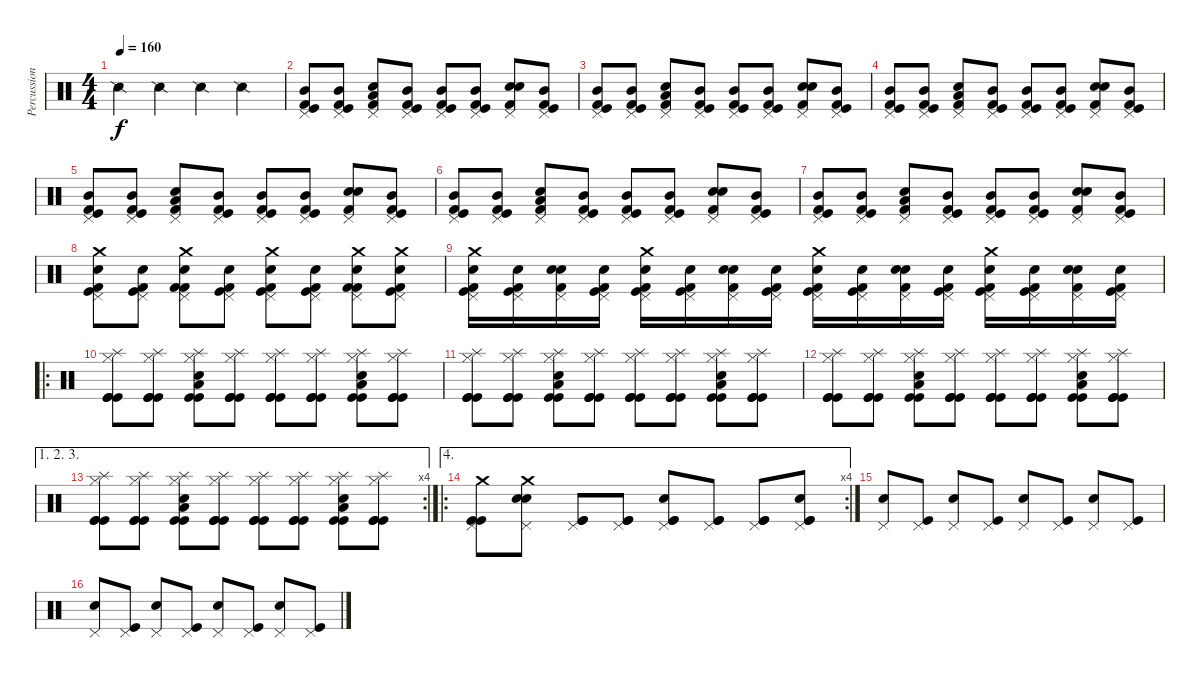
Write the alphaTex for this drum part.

\track ("Percussion" "Percussion") {instrument percussion}
\staff {score}
\articulation defaults
\ts (4 4)
\tempo 160
\clef neutral
\ks c "Snare (side stick) 2".4{dy f} "Snare (side stick) 2".4 "Snare (side stick) 2".4 "Snare (side stick) 2".4
|
("Pedal Hi-Hat (hit)" "Mid Tom (hit)" "Kick (hit) 2" "Kick (hit)").8 ("Pedal Hi-Hat (hit)" "Mid Tom (hit)" "Kick (hit) 2" "Kick (hit)").8 ("Pedal Hi-Hat (hit)" "Low Tom (hit)" "Electric Snare (hit)" "Kick (hit) 2").8 ("Pedal Hi-Hat (hit)" "Mid Tom (hit)" "Kick (hit) 2" "Kick (hit)").8 ("Pedal Hi-Hat (hit)" "Mid Tom (hit)" "Kick (hit) 2" "Kick (hit)").8 ("Pedal Hi-Hat (hit)" "Mid Tom (hit)" "Kick (hit) 2" "Kick (hit)").8 ("Pedal Hi-Hat (hit)" "Electric Snare (hit)" "Electric Snare (hit)" "Kick (hit) 2").8 ("Pedal Hi-Hat (hit)" "Mid Tom (hit)" "Kick (hit) 2" "Kick (hit)").8 |
("Pedal Hi-Hat (hit)" "Mid Tom (hit)" "Kick (hit) 2" "Kick (hit)").8 ("Pedal Hi-Hat (hit)" "Mid Tom (hit)" "Kick (hit) 2" "Kick (hit)").8 ("Pedal Hi-Hat (hit)" "Low Tom (hit)" "Electric Snare (hit)" "Kick (hit) 2").8 ("Pedal Hi-Hat (hit)" "Mid Tom (hit)" "Kick (hit) 2" "Kick (hit)").8 ("Pedal Hi-Hat (hit)" "Mid Tom (hit)" "Kick (hit) 2" "Kick (hit)").8 ("Pedal Hi-Hat (hit)" "Mid Tom (hit)" "Kick (hit) 2" "Kick (hit)").8 ("Pedal Hi-Hat (hit)" "Electric Snare (hit)" "Electric Snare (hit)" "Kick (hit) 2").8 ("Pedal Hi-Hat (hit)" "Mid Tom (hit)" "Kick (hit) 2" "Kick (hit)").8 |
("Pedal Hi-Hat (hit)" "Mid Tom (hit)" "Kick (hit) 2" "Kick (hit)").8 ("Pedal Hi-Hat (hit)" "Mid Tom (hit)" "Kick (hit) 2" "Kick (hit)").8 ("Pedal Hi-Hat (hit)" "Low Tom (hit)" "Electric Snare (hit)" "Kick (hit) 2").8 ("Pedal Hi-Hat (hit)" "Mid Tom (hit)" "Kick (hit) 2" "Kick (hit)").8 ("Pedal Hi-Hat (hit)" "Mid Tom (hit)" "Kick (hit) 2" "Kick (hit)").8 ("Pedal Hi-Hat (hit)" "Mid Tom (hit)" "Kick (hit) 2" "Kick (hit)").8 ("Pedal Hi-Hat (hit)" "Electric Snare (hit)" "Electric Snare (hit)" "Kick (hit) 2").8 ("Pedal Hi-Hat (hit)" "Mid Tom (hit)" "Kick (hit) 2" "Kick (hit)").8 |
("Pedal Hi-Hat (hit)" "Mid Tom (hit)" "Kick (hit) 2" "Kick (hit)").8 ("Pedal Hi-Hat (hit)" "Mid Tom (hit)" "Kick (hit) 2" "Kick (hit)").8 ("Pedal Hi-Hat (hit)" "Low Tom (hit)" "Electric Snare (hit)" "Kick (hit) 2").8 ("Pedal Hi-Hat (hit)" "Mid Tom (hit)" "Kick (hit) 2" "Kick (hit)").8 ("Pedal Hi-Hat (hit)" "Mid Tom (hit)" "Kick (hit) 2" "Kick (hit)").8 ("Pedal Hi-Hat (hit)" "Mid Tom (hit)" "Kick (hit) 2" "Kick (hit)").8 ("Pedal Hi-Hat (hit)" "Electric Snare (hit)" "Electric Snare (hit)" "Kick (hit) 2").8 ("Pedal Hi-Hat (hit)" "Mid Tom (hit)" "Kick (hit) 2" "Kick (hit)").8 |
("Pedal Hi-Hat (hit)" "Mid Tom (hit)" "Kick (hit) 2" "Kick (hit)").8 ("Pedal Hi-Hat (hit)" "Mid Tom (hit)" "Kick (hit) 2" "Kick (hit)").8 ("Pedal Hi-Hat (hit)" "Low Tom (hit)" "Electric Snare (hit)" "Kick (hit) 2").8 ("Pedal Hi-Hat (hit)" "Mid Tom (hit)" "Kick (hit) 2" "Kick (hit)").8 ("Pedal Hi-Hat (hit)" "Mid Tom (hit)" "Kick (hit) 2" "Kick (hit)").8 ("Pedal Hi-Hat (hit)" "Mid Tom (hit)" "Kick (hit) 2" "Kick (hit)").8 ("Pedal Hi-Hat (hit)" "Electric Snare (hit)" "Electric Snare (hit)" "Kick (hit) 2").8 ("Pedal Hi-Hat (hit)" "Mid Tom (hit)" "Kick (hit) 2" "Kick (hit)").8 |
("Pedal Hi-Hat (hit)" "Mid Tom (hit)" "Kick (hit) 2" "Kick (hit)").8 ("Pedal Hi-Hat (hit)" "Mid Tom (hit)" "Kick (hit) 2" "Kick (hit)").8 ("Pedal Hi-Hat (hit)" "Low Tom (hit)" "Electric Snare (hit)" "Kick (hit) 2").8 ("Pedal Hi-Hat (hit)" "Mid Tom (hit)" "Kick (hit) 2" "Kick (hit)").8 ("Pedal Hi-Hat (hit)" "Mid Tom (hit)" "Kick (hit) 2" "Kick (hit)").8 ("Pedal Hi-Hat (hit)" "Mid Tom (hit)" "Kick (hit) 2" "Kick (hit)").8 ("Pedal Hi-Hat (hit)" "Electric Snare (hit)" "Electric Snare (hit)" "Kick (hit) 2").8 ("Pedal Hi-Hat (hit)" "Mid Tom (hit)" "Kick (hit) 2" "Kick (hit)").8 |
("Pedal Hi-Hat (hit)" "Crash medium (hit)" "Electric Snare (hit)" "Kick (hit) 2" "Kick (hit)").8 ("Pedal Hi-Hat (hit)" "Electric Snare (hit)" "Kick (hit) 2" "Kick (hit)").8 ("Pedal Hi-Hat (hit)" "Crash medium (hit)" "Electric Snare (hit)" "Kick (hit) 2" "Kick (hit) 2").8 ("Pedal Hi-Hat (hit)" "Electric Snare (hit)" "Kick (hit) 2" "Kick (hit)").8 ("Pedal Hi-Hat (hit)" "Crash medium (hit)" "Electric Snare (hit)" "Kick (hit) 2" "Kick (hit)").8 ("Pedal Hi-Hat (hit)" "Electric Snare (hit)" "Kick (hit) 2" "Kick (hit)").8 ("Pedal Hi-Hat (hit)" "Crash medium (hit)" "Electric Snare (hit)" "Kick (hit) 2" "Kick (hit) 2").8 ("Pedal Hi-Hat (hit)" "Crash medium (hit)" "Electric Snare (hit)" "Kick (hit) 2" "Kick (hit)").8 |
("Pedal Hi-Hat (hit)" "Crash medium (hit)" "Electric Snare (hit)" "Kick (hit) 2" "Kick (hit)").16 ("Pedal Hi-Hat (hit)" "Electric Snare (hit)" "Kick (hit) 2" "Kick (hit)").16 ("Pedal Hi-Hat (hit)" "Electric Snare (hit)" "Electric Snare (hit)" "Kick (hit) 2").16 ("Pedal Hi-Hat (hit)" "Electric Snare (hit)" "Kick (hit) 2" "Kick (hit)").16 ("Pedal Hi-Hat (hit)" "Crash medium (hit)" "Electric Snare (hit)" "Kick (hit) 2" "Kick (hit)").16 ("Pedal Hi-Hat (hit)" "Electric Snare (hit)" "Kick (hit) 2" "Kick (hit)").16 ("Pedal Hi-Hat (hit)" "Electric Snare (hit)" "Electric Snare (hit)" "Kick (hit) 2").16 ("Pedal Hi-Hat (hit)" "Electric Snare (hit)" "Kick (hit) 2" "Kick (hit)").16 ("Pedal Hi-Hat (hit)" "Crash medium (hit)" "Electric Snare (hit)" "Kick (hit) 2" "Kick (hit)").16 ("Pedal Hi-Hat (hit)" "Electric Snare (hit)" "Kick (hit) 2" "Kick (hit)").16 ("Pedal Hi-Hat (hit)" "Electric Snare (hit)" "Electric Snare (hit)" "Kick (hit) 2").16 ("Pedal Hi-Hat (hit)" "Electric Snare (hit)" "Kick (hit) 2" "Kick (hit)").16 ("Pedal Hi-Hat (hit)" "Crash medium (hit)" "Electric Snare (hit)" "Kick (hit) 2" "Kick (hit)").16 ("Pedal Hi-Hat (hit)" "Electric Snare (hit)" "Kick (hit) 2" "Kick (hit)").16 ("Pedal Hi-Hat (hit)" "Electric Snare (hit)" "Electric Snare (hit)" "Kick (hit) 2").16 ("Pedal Hi-Hat (hit)" "Electric Snare (hit)" "Kick (hit) 2" "Kick (hit)").16 |
\ro
("Hi-Hat (closed)" "Splash (hit)" "Kick (hit)" "Kick (hit)" "Kick (hit)").8 ("Hi-Hat (closed)" "Splash (hit)" "Kick (hit)" "Kick (hit)" "Kick (hit)").8 ("Hi-Hat (closed)" "Splash (hit)" "Low Tom (hit)" "Electric Snare (hit)" "Kick (hit)" "Kick (hit)").8 ("Hi-Hat (closed)" "Splash (hit)" "Kick (hit)" "Kick (hit)" "Kick (hit)").8 ("Hi-Hat (closed)" "Splash (hit)" "Kick (hit)" "Kick (hit)" "Kick (hit)").8 ("Hi-Hat (closed)" "Splash (hit)" "Kick (hit)" "Kick (hit)" "Kick (hit)").8 ("Hi-Hat (closed)" "Splash (hit)" "Low Tom (hit)" "Electric Snare (hit)" "Kick (hit)" "Kick (hit)").8 ("Hi-Hat (closed)" "Splash (hit)" "Kick (hit)" "Kick (hit)" "Kick (hit)").8 |
("Hi-Hat (closed)" "Splash (hit)" "Kick (hit)" "Kick (hit)" "Kick (hit)").8 ("Hi-Hat (closed)" "Splash (hit)" "Kick (hit)" "Kick (hit)" "Kick (hit)").8 ("Hi-Hat (closed)" "Splash (hit)" "Low Tom (hit)" "Electric Snare (hit)" "Kick (hit)" "Kick (hit)").8 ("Hi-Hat (closed)" "Splash (hit)" "Kick (hit)" "Kick (hit)" "Kick (hit)").8 ("Hi-Hat (closed)" "Splash (hit)" "Kick (hit)" "Kick (hit)" "Kick (hit)").8 ("Hi-Hat (closed)" "Splash (hit)" "Kick (hit)" "Kick (hit)" "Kick (hit)").8 ("Hi-Hat (closed)" "Splash (hit)" "Low Tom (hit)" "Electric Snare (hit)" "Kick (hit)" "Kick (hit)").8 ("Hi-Hat (closed)" "Splash (hit)" "Kick (hit)" "Kick (hit)" "Kick (hit)").8 |
("Hi-Hat (closed)" "Splash (hit)" "Kick (hit)" "Kick (hit)" "Kick (hit)").8 ("Hi-Hat (closed)" "Splash (hit)" "Kick (hit)" "Kick (hit)" "Kick (hit)").8 ("Hi-Hat (closed)" "Splash (hit)" "Low Tom (hit)" "Electric Snare (hit)" "Kick (hit)" "Kick (hit)").8 ("Hi-Hat (closed)" "Splash (hit)" "Kick (hit)" "Kick (hit)" "Kick (hit)").8 ("Hi-Hat (closed)" "Splash (hit)" "Kick (hit)" "Kick (hit)" "Kick (hit)").8 ("Hi-Hat (closed)" "Splash (hit)" "Kick (hit)" "Kick (hit)" "Kick (hit)").8 ("Hi-Hat (closed)" "Splash (hit)" "Low Tom (hit)" "Electric Snare (hit)" "Kick (hit)" "Kick (hit)").8 ("Hi-Hat (closed)" "Splash (hit)" "Kick (hit)" "Kick (hit)" "Kick (hit)").8 |
\ae (1 2 3)
\rc 4
("Hi-Hat (closed)" "Splash (hit)" "Kick (hit)" "Kick (hit)" "Kick (hit)").8 ("Hi-Hat (closed)" "Splash (hit)" "Kick (hit)" "Kick (hit)" "Kick (hit)").8 ("Hi-Hat (closed)" "Splash (hit)" "Low Tom (hit)" "Electric Snare (hit)" "Kick (hit)" "Kick (hit)").8 ("Hi-Hat (closed)" "Splash (hit)" "Kick (hit)" "Kick (hit)" "Kick (hit)").8 ("Hi-Hat (closed)" "Splash (hit)" "Kick (hit)" "Kick (hit)" "Kick (hit)").8 ("Hi-Hat (closed)" "Splash (hit)" "Kick (hit)" "Kick (hit)" "Kick (hit)").8 ("Hi-Hat (closed)" "Splash (hit)" "Low Tom (hit)" "Electric Snare (hit)" "Kick (hit)" "Kick (hit)").8 ("Hi-Hat (closed)" "Splash (hit)" "Kick (hit)" "Kick (hit)" "Kick (hit)").8 |
\ae 4
\ro
\rc 4
("Pedal Hi-Hat (hit)" "Crash medium (hit)" "Kick (hit)" "Kick (hit)").8 ("Pedal Hi-Hat (hit)" "Crash medium (hit)" "Electric Snare (hit)" "Electric Snare (hit)").8 ("Pedal Hi-Hat (hit)" "Kick (hit)" "Kick (hit)").8 ("Pedal Hi-Hat (hit)" "Kick (hit)" "Kick (hit)").8 ("Pedal Hi-Hat (hit)" "Electric Snare (hit)" "Kick (hit)" "Kick (hit)").8 ("Pedal Hi-Hat (hit)" "Kick (hit)" "Kick (hit)").8 ("Pedal Hi-Hat (hit)" "Kick (hit)" "Kick (hit)").8 ("Pedal Hi-Hat (hit)" "Electric Snare (hit)" "Kick (hit)" "Kick (hit)").8 |
("Pedal Hi-Hat (hit)" "Electric Snare (hit)").8 ("Pedal Hi-Hat (hit)" "Kick (hit)").8 ("Pedal Hi-Hat (hit)" "Electric Snare (hit)").8 ("Pedal Hi-Hat (hit)" "Kick (hit)").8 ("Pedal Hi-Hat (hit)" "Electric Snare (hit)").8 ("Pedal Hi-Hat (hit)" "Kick (hit)").8 ("Pedal Hi-Hat (hit)" "Electric Snare (hit)").8 ("Pedal Hi-Hat (hit)" "Kick (hit)").8 |
("Pedal Hi-Hat (hit)" "Electric Snare (hit)").8 ("Pedal Hi-Hat (hit)" "Kick (hit)").8 ("Pedal Hi-Hat (hit)" "Electric Snare (hit)").8 ("Pedal Hi-Hat (hit)" "Kick (hit)").8 ("Pedal Hi-Hat (hit)" "Electric Snare (hit)").8 ("Pedal Hi-Hat (hit)" "Kick (hit)").8 ("Pedal Hi-Hat (hit)" "Electric Snare (hit)").8 ("Pedal Hi-Hat (hit)" "Kick (hit)").8
